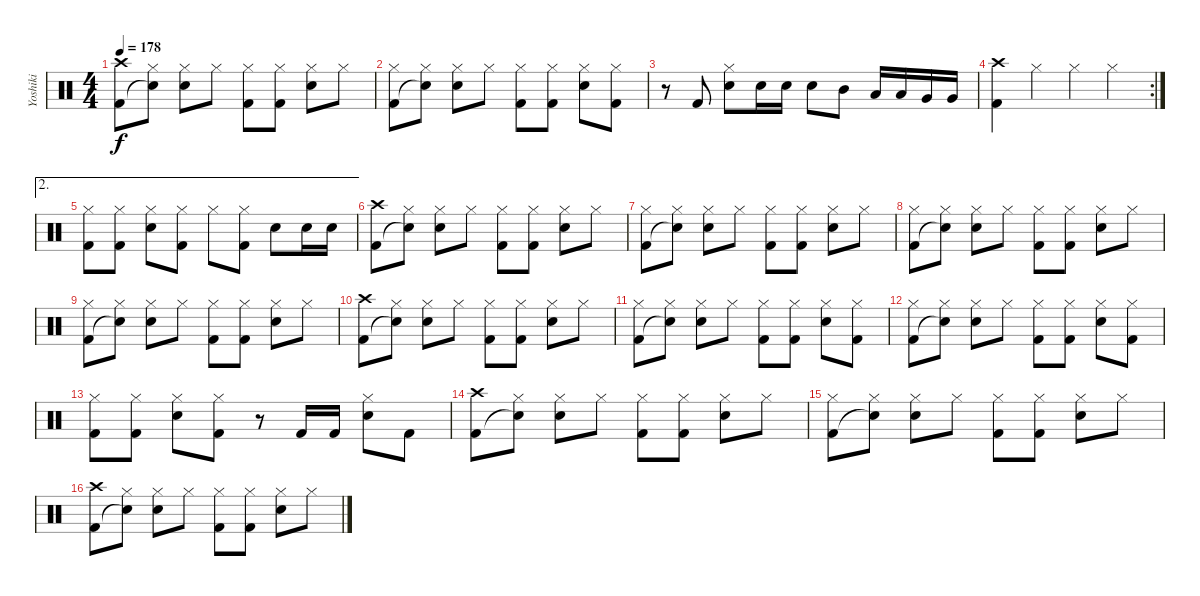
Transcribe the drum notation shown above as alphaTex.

\track ("Yoshiki" "Yoshiki") {instrument percussion}
\staff {score}
\articulation defaults
\ts (4 4)
\tempo 178
\clef neutral
\ks c
("Crash high (hit)" "Kick (hit) 2").8{dy f} ("Hi-Hat (closed)" "Snare (hit)"{t}).8 ("Hi-Hat (closed)" "Snare (hit) 2").8 "Hi-Hat (closed)".8 ("Hi-Hat (closed)" "Kick (hit) 2").8 ("Hi-Hat (closed)" "Kick (hit) 2").8 ("Hi-Hat (closed)" "Snare (hit) 2").8 "Hi-Hat (closed)".8 |
("Hi-Hat (closed)" "Kick (hit) 2").8 ("Hi-Hat (closed)" "Snare (hit)"{t}).8 ("Hi-Hat (closed)" "Snare (hit) 2").8 "Hi-Hat (closed)".8 ("Hi-Hat (closed)" "Kick (hit) 2").8 ("Hi-Hat (closed)" "Kick (hit) 2").8 ("Hi-Hat (closed)" "Snare (hit) 2").8 ("Hi-Hat (closed)" "Kick (hit) 2").8 |
r.8 "Kick (hit) 2".8 ("Hi-Hat (closed)" "Snare (hit) 2").8 "Snare (hit) 2".16 "Snare (hit) 2".16 "Snare (hit) 2".8 "Mid Tom (hit)".8 "Low Tom (hit)".16 "Low Tom (hit)".16 "Very Low Tom (hit)".16 "Very Low Tom (hit)".16 |
\rc 2
("Crash high (hit)" "Kick (hit) 2").4 "Hi-Hat (closed)".4 "Hi-Hat (closed)".4 "Hi-Hat (closed)".4 |
\ae 2
("Hi-Hat (closed)" "Kick (hit) 2").8 ("Hi-Hat (closed)" "Kick (hit) 2").8 ("Hi-Hat (closed)" "Snare (hit) 2").8 ("Hi-Hat (closed)" "Kick (hit) 2").8 "Hi-Hat (closed)".8 ("Hi-Hat (closed)" "Kick (hit) 2").8 "Snare (hit) 2".8 "Snare (hit) 2".16 "Snare (hit) 2".16 |
("Crash high (hit)" "Kick (hit) 2").8 ("Hi-Hat (closed)" "Snare (hit)"{t}).8 ("Hi-Hat (closed)" "Snare (hit) 2").8 "Hi-Hat (closed)".8 ("Hi-Hat (closed)" "Kick (hit) 2").8 ("Hi-Hat (closed)" "Kick (hit) 2").8 ("Hi-Hat (closed)" "Snare (hit) 2").8 "Hi-Hat (closed)".8 |
("Hi-Hat (closed)" "Kick (hit) 2").8 ("Hi-Hat (closed)" "Snare (hit)"{t}).8 ("Hi-Hat (closed)" "Snare (hit) 2").8 "Hi-Hat (closed)".8 ("Hi-Hat (closed)" "Kick (hit) 2").8 ("Hi-Hat (closed)" "Kick (hit) 2").8 ("Hi-Hat (closed)" "Snare (hit) 2").8 "Hi-Hat (closed)".8 |
("Hi-Hat (closed)" "Kick (hit) 2").8 ("Hi-Hat (closed)" "Snare (hit)"{t}).8 ("Hi-Hat (closed)" "Snare (hit) 2").8 "Hi-Hat (closed)".8 ("Hi-Hat (closed)" "Kick (hit) 2").8 ("Hi-Hat (closed)" "Kick (hit) 2").8 ("Hi-Hat (closed)" "Snare (hit) 2").8 "Hi-Hat (closed)".8 |
("Hi-Hat (closed)" "Kick (hit) 2").8 ("Hi-Hat (closed)" "Snare (hit)"{t}).8 ("Hi-Hat (closed)" "Snare (hit) 2").8 "Hi-Hat (closed)".8 ("Hi-Hat (closed)" "Kick (hit) 2").8 ("Hi-Hat (closed)" "Kick (hit) 2").8 ("Hi-Hat (closed)" "Snare (hit) 2").8 "Hi-Hat (closed)".8 |
("Crash high (hit)" "Kick (hit) 2").8 ("Hi-Hat (closed)" "Snare (hit)"{t}).8 ("Hi-Hat (closed)" "Snare (hit) 2").8 "Hi-Hat (closed)".8 ("Hi-Hat (closed)" "Kick (hit) 2").8 ("Hi-Hat (closed)" "Kick (hit) 2").8 ("Hi-Hat (closed)" "Snare (hit) 2").8 "Hi-Hat (closed)".8 |
("Hi-Hat (closed)" "Kick (hit) 2").8 ("Hi-Hat (closed)" "Snare (hit)"{t}).8 ("Hi-Hat (closed)" "Snare (hit) 2").8 "Hi-Hat (closed)".8 ("Hi-Hat (closed)" "Kick (hit) 2").8 ("Hi-Hat (closed)" "Kick (hit) 2").8 ("Hi-Hat (closed)" "Snare (hit) 2").8 ("Hi-Hat (closed)" "Kick (hit) 2").8 |
("Hi-Hat (closed)" "Kick (hit) 2").8 ("Hi-Hat (closed)" "Snare (hit)"{t}).8 ("Hi-Hat (closed)" "Snare (hit) 2").8 "Hi-Hat (closed)".8 ("Hi-Hat (closed)" "Kick (hit) 2").8 ("Hi-Hat (closed)" "Kick (hit) 2").8 ("Hi-Hat (closed)" "Snare (hit) 2").8 ("Hi-Hat (closed)" "Kick (hit) 2").8 |
("Hi-Hat (closed)" "Kick (hit) 2").8 ("Hi-Hat (closed)" "Kick (hit) 2").8 ("Hi-Hat (closed)" "Snare (hit) 2").8 ("Hi-Hat (closed)" "Kick (hit) 2").8 r.8 "Kick (hit) 2".16 "Kick (hit) 2".16 ("Hi-Hat (closed)" "Snare (hit) 2").8 "Kick (hit) 2".8 |
("Crash high (hit)" "Kick (hit) 2").8 ("Hi-Hat (closed)" "Snare (hit)"{t}).8 ("Hi-Hat (closed)" "Snare (hit) 2").8 "Hi-Hat (closed)".8 ("Hi-Hat (closed)" "Kick (hit) 2").8 ("Hi-Hat (closed)" "Kick (hit) 2").8 ("Hi-Hat (closed)" "Snare (hit) 2").8 "Hi-Hat (closed)".8 |
("Hi-Hat (closed)" "Kick (hit) 2").8 ("Hi-Hat (closed)" "Snare (hit)"{t}).8 ("Hi-Hat (closed)" "Snare (hit) 2").8 "Hi-Hat (closed)".8 ("Hi-Hat (closed)" "Kick (hit) 2").8 ("Hi-Hat (closed)" "Kick (hit) 2").8 ("Hi-Hat (closed)" "Snare (hit) 2").8 "Hi-Hat (closed)".8 |
("Crash high (hit)" "Kick (hit) 2").8 ("Hi-Hat (closed)" "Snare (hit)"{t}).8 ("Hi-Hat (closed)" "Snare (hit) 2").8 "Hi-Hat (closed)".8 ("Hi-Hat (closed)" "Kick (hit) 2").8 ("Hi-Hat (closed)" "Kick (hit) 2").8 ("Hi-Hat (closed)" "Snare (hit) 2").8 "Hi-Hat (closed)".8
